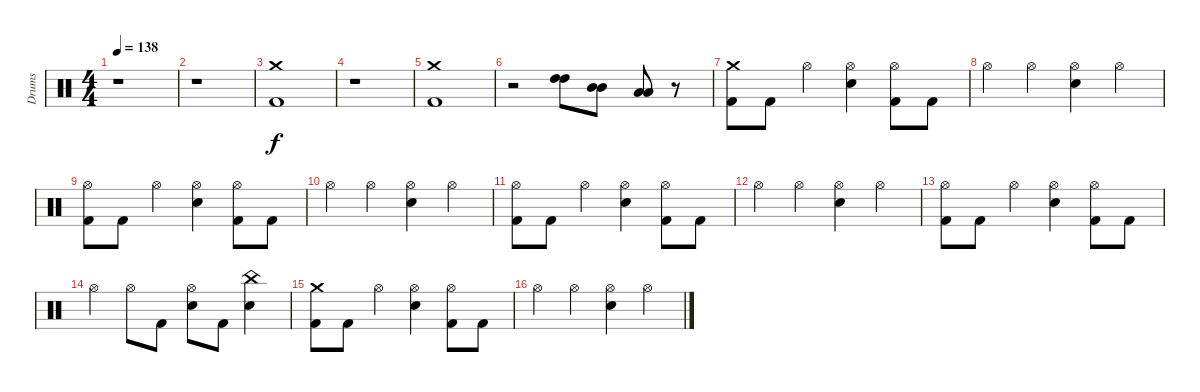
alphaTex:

\track ("Drums" "Drums") {instrument percussion}
\staff {score}
\articulation defaults
\ts (4 4)
\tempo 138
\clef neutral
\ks c
r.1{dy f} |
r.1 |
("Crash medium (hit)" "Kick (hit) 2").1 |
r.1 |
("Crash medium (hit)" "Kick (hit) 2").1 |
r.2 ("High Tom (hit)" "High Tom (hit)").8 ("Mid Tom (hit)" "Mid Tom (hit)").8 ("Low Tom (hit)" "Low Tom (hit)").8 r.8 |
("Crash medium (hit)" "Kick (hit) 2").8 "Kick (hit) 2".8 "Hi-Hat (open)".4 ("Hi-Hat (open)" "Electric Snare (hit)").4 ("Hi-Hat (open)" "Kick (hit) 2").8 "Kick (hit) 2".8 |
"Hi-Hat (open)".4 "Hi-Hat (open)".4 ("Hi-Hat (open)" "Electric Snare (hit)").4 "Hi-Hat (open)".4 |
("Hi-Hat (open)" "Kick (hit) 2").8 "Kick (hit) 2".8 "Hi-Hat (open)".4 ("Hi-Hat (open)" "Electric Snare (hit)").4 ("Hi-Hat (open)" "Kick (hit) 2").8 "Kick (hit) 2".8 |
"Hi-Hat (open)".4 "Hi-Hat (open)".4 ("Hi-Hat (open)" "Electric Snare (hit)").4 "Hi-Hat (open)".4 |
("Hi-Hat (open)" "Kick (hit) 2").8 "Kick (hit) 2".8 "Hi-Hat (open)".4 ("Hi-Hat (open)" "Electric Snare (hit)").4 ("Hi-Hat (open)" "Kick (hit) 2").8 "Kick (hit) 2".8 |
"Hi-Hat (open)".4 "Hi-Hat (open)".4 ("Hi-Hat (open)" "Electric Snare (hit)").4 "Hi-Hat (open)".4 |
("Hi-Hat (open)" "Kick (hit) 2").8 "Kick (hit) 2".8 "Hi-Hat (open)".4 ("Hi-Hat (open)" "Electric Snare (hit)").4 ("Hi-Hat (open)" "Kick (hit) 2").8 "Kick (hit) 2".8 |
"Hi-Hat (open)".4 "Hi-Hat (open)".8 "Kick (hit) 2".8 ("Hi-Hat (open)" "Electric Snare (hit)").8 "Kick (hit) 2".8 ("China (hit)" "Electric Snare (hit)").4 |
("Crash medium (hit)" "Kick (hit) 2").8 "Kick (hit) 2".8 "Hi-Hat (open)".4 ("Hi-Hat (open)" "Electric Snare (hit)").4 ("Hi-Hat (open)" "Kick (hit) 2").8 "Kick (hit) 2".8 |
"Hi-Hat (open)".4 "Hi-Hat (open)".4 ("Hi-Hat (open)" "Electric Snare (hit)").4 "Hi-Hat (open)".4
